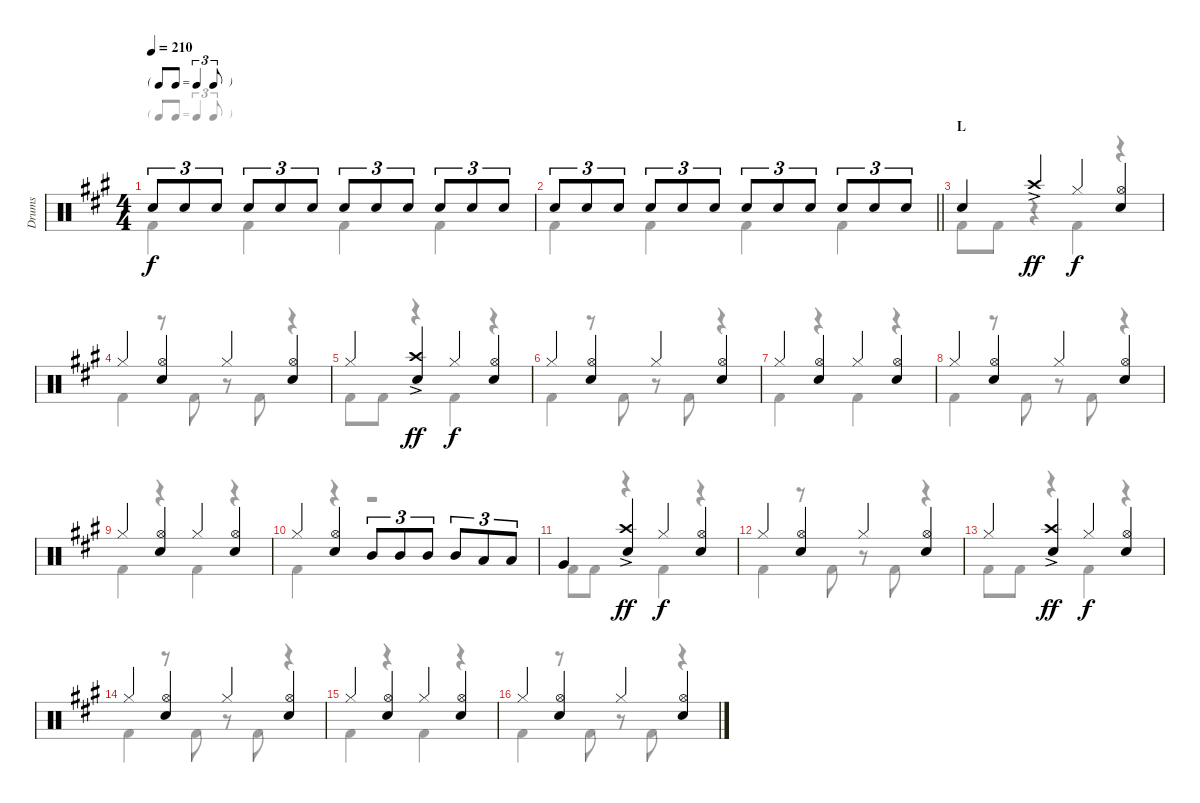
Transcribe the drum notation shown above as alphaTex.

\track ("Drums" "Drums") {instrument percussion}
\staff {score}
\articulation defaults
\voice
\ts (4 4)
\tf triplet8th
\tempo 210
\clef neutral
\ks a "Snare (hit) 2".8{tu (3 2) dy f} "Snare (hit) 2".8{tu (3 2)} "Snare (hit) 2".8{tu (3 2)} "Snare (hit) 2".8{tu (3 2)} "Snare (hit) 2".8{tu (3 2)} "Snare (hit) 2".8{tu (3 2)} "Snare (hit) 2".8{tu (3 2)} "Snare (hit) 2".8{tu (3 2)} "Snare (hit) 2".8{tu (3 2)} "Snare (hit) 2".8{tu (3 2)} "Snare (hit) 2".8{tu (3 2)} "Snare (hit) 2".8{tu (3 2)}
|
\barLineRight lightlight "Snare (hit) 2".8{tu (3 2)} "Snare (hit) 2".8{tu (3 2)} "Snare (hit) 2".8{tu (3 2)} "Snare (hit) 2".8{tu (3 2)} "Snare (hit) 2".8{tu (3 2)} "Snare (hit) 2".8{tu (3 2)} "Snare (hit) 2".8{tu (3 2)} "Snare (hit) 2".8{tu (3 2)} "Snare (hit) 2".8{tu (3 2)} "Snare (hit) 2".8{tu (3 2)} "Snare (hit) 2".8{tu (3 2)} "Snare (hit) 2".8{tu (3 2)}
|
\section ("" "L")
"Snare (hit) 2".4 "Crash high (hit)"{ac}.4{dy ff} "Hi-Hat (closed)".4{dy f} ("Hi-Hat (open)" "Snare (hit) 2").4 |
"Hi-Hat (closed)".4 ("Hi-Hat (open)" "Snare (hit) 2").4 "Hi-Hat (closed)".4 ("Hi-Hat (open)" "Snare (hit) 2").4 |
"Hi-Hat (closed)".4 ("Crash high (hit)"{ac} "Snare (hit) 2").4{dy ff} "Hi-Hat (closed)".4{dy f} ("Hi-Hat (open)" "Snare (hit) 2").4 |
"Hi-Hat (closed)".4 ("Hi-Hat (open)" "Snare (hit) 2").4 "Hi-Hat (closed)".4 ("Hi-Hat (open)" "Snare (hit) 2").4 |
"Hi-Hat (closed)".4 ("Hi-Hat (open)" "Snare (hit) 2").4 "Hi-Hat (closed)".4 ("Hi-Hat (open)" "Snare (hit) 2").4 |
"Hi-Hat (closed)".4 ("Hi-Hat (open)" "Snare (hit) 2").4 "Hi-Hat (closed)".4 ("Hi-Hat (open)" "Snare (hit) 2").4 |
"Hi-Hat (closed)".4 ("Hi-Hat (open)" "Snare (hit) 2").4 "Hi-Hat (closed)".4 ("Hi-Hat (open)" "Snare (hit) 2").4 |
"Hi-Hat (closed)".4 ("Hi-Hat (open)" "Snare (hit) 2").4 "Mid Tom (hit)".8{tu (3 2)} "Mid Tom (hit)".8{tu (3 2)} "Mid Tom (hit)".8{tu (3 2)} "Mid Tom (hit)".8{tu (3 2)} "Low Tom (hit)".8{tu (3 2)} "Low Tom (hit)".8{tu (3 2)} |
"Very Low Tom (hit)".4 ("Crash high (hit)"{ac} "Snare (hit) 2").4{dy ff} "Hi-Hat (closed)".4{dy f} ("Hi-Hat (open)" "Snare (hit) 2").4 |
"Hi-Hat (closed)".4 ("Hi-Hat (open)" "Snare (hit) 2").4 "Hi-Hat (closed)".4 ("Hi-Hat (open)" "Snare (hit) 2").4 |
"Hi-Hat (closed)".4 ("Crash high (hit)"{ac} "Snare (hit) 2").4{dy ff} "Hi-Hat (closed)".4{dy f} ("Hi-Hat (open)" "Snare (hit) 2").4 |
"Hi-Hat (closed)".4 ("Hi-Hat (open)" "Snare (hit) 2").4 "Hi-Hat (closed)".4 ("Hi-Hat (open)" "Snare (hit) 2").4 |
"Hi-Hat (closed)".4 ("Hi-Hat (open)" "Snare (hit) 2").4 "Hi-Hat (closed)".4 ("Hi-Hat (open)" "Snare (hit) 2").4 |
"Hi-Hat (closed)".4 ("Hi-Hat (open)" "Snare (hit) 2").4 "Hi-Hat (closed)".4 ("Hi-Hat (open)" "Snare (hit) 2").4
\voice
\clef neutral
\ottava regular
\simile none
\ks a "Kick (hit) 2".4{dy f} "Kick (hit) 2".4 "Kick (hit) 2".4 "Kick (hit) 2".4
|
\barLineRight lightlight "Kick (hit) 2".4 "Kick (hit) 2".4 "Kick (hit) 2".4 "Kick (hit) 2".4
|
"Kick (hit) 2".8 "Kick (hit) 2".8 r.4 "Kick (hit) 2".4 r.4 |
"Kick (hit) 2".4 r.8 "Kick (hit) 2".8 r.8 "Kick (hit) 2".8 r.4 |
"Kick (hit) 2".8 "Kick (hit) 2".8 r.4 "Kick (hit) 2".4 r.4 |
"Kick (hit) 2".4 r.8 "Kick (hit) 2".8 r.8 "Kick (hit) 2".8 r.4 |
"Kick (hit) 2".4 r.4 "Kick (hit) 2".4 r.4 |
"Kick (hit) 2".4 r.8 "Kick (hit) 2".8 r.8 "Kick (hit) 2".8 r.4 |
"Kick (hit) 2".4 r.4 "Kick (hit) 2".4 r.4 |
"Kick (hit) 2".4 r.4 r.2 |
"Kick (hit) 2".8 "Kick (hit) 2".8 r.4 "Kick (hit) 2".4 r.4 |
"Kick (hit) 2".4 r.8 "Kick (hit) 2".8 r.8 "Kick (hit) 2".8 r.4 |
"Kick (hit) 2".8 "Kick (hit) 2".8 r.4 "Kick (hit) 2".4 r.4 |
"Kick (hit) 2".4 r.8 "Kick (hit) 2".8 r.8 "Kick (hit) 2".8 r.4 |
"Kick (hit) 2".4 r.4 "Kick (hit) 2".4 r.4 |
"Kick (hit) 2".4 r.8 "Kick (hit) 2".8 r.8 "Kick (hit) 2".8 r.4
